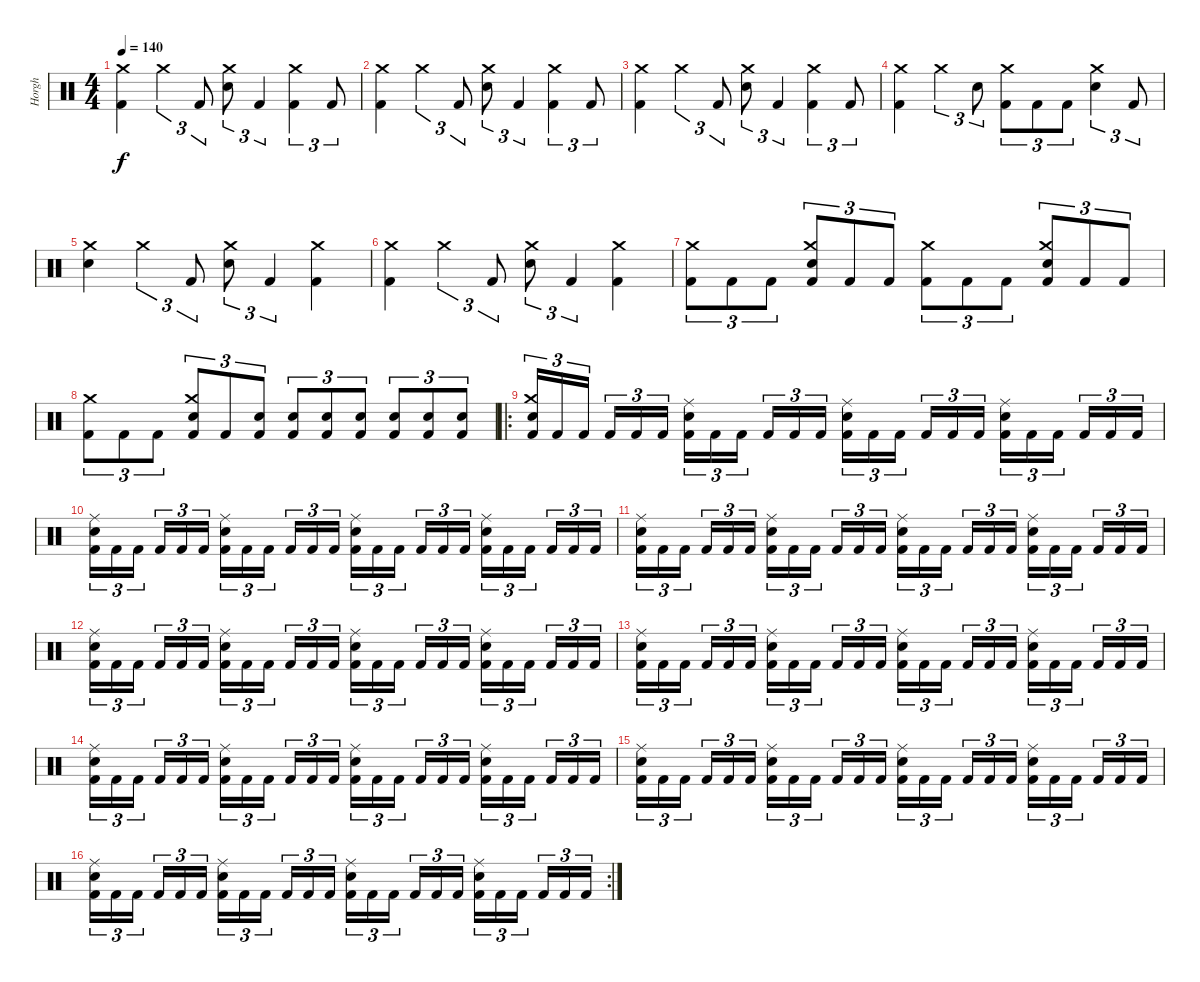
\track ("Horgh" "Horgh") {instrument percussion}
\staff {score}
\articulation defaults
\ts (4 4)
\tempo 140
\clef neutral
\ks c
("Kick (hit) 2" "Crash medium (hit)").4{dy f} "Crash medium (hit)".4{tu (3 2)} "Kick (hit) 2".8{tu (3 2)} ("Electric Snare (hit)" "Crash medium (hit)").8{tu (3 2)} "Kick (hit) 2".4{tu (3 2)} ("Kick (hit) 2" "Crash medium (hit)").4{tu (3 2)} "Kick (hit) 2".8{tu (3 2)} |
("Kick (hit) 2" "Crash medium (hit)").4 "Crash medium (hit)".4{tu (3 2)} "Kick (hit) 2".8{tu (3 2)} ("Electric Snare (hit)" "Crash medium (hit)").8{tu (3 2)} "Kick (hit) 2".4{tu (3 2)} ("Kick (hit) 2" "Crash medium (hit)").4{tu (3 2)} "Kick (hit) 2".8{tu (3 2)} |
("Kick (hit) 2" "Crash medium (hit)").4 "Crash medium (hit)".4{tu (3 2)} "Kick (hit) 2".8{tu (3 2)} ("Electric Snare (hit)" "Crash medium (hit)").8{tu (3 2)} "Kick (hit) 2".4{tu (3 2)} ("Kick (hit) 2" "Crash medium (hit)").4{tu (3 2)} "Kick (hit) 2".8{tu (3 2)} |
("Kick (hit) 2" "Crash medium (hit)").4 "Crash medium (hit)".4{tu (3 2)} "Electric Snare (hit)".8{tu (3 2)} ("Kick (hit) 2" "Crash medium (hit)").8{tu (3 2)} "Kick (hit) 2".8{tu (3 2)} "Kick (hit) 2".8{tu (3 2)} ("Electric Snare (hit)" "Crash medium (hit)").4{tu (3 2)} "Kick (hit) 2".8{tu (3 2)} |
("Electric Snare (hit)" "Crash medium (hit)").4 "Crash medium (hit)".4{tu (3 2)} "Kick (hit) 2".8{tu (3 2)} ("Electric Snare (hit)" "Crash medium (hit)").8{tu (3 2)} "Kick (hit) 2".4{tu (3 2)} ("Kick (hit) 2" "Crash medium (hit)").4 |
("Kick (hit) 2" "Crash medium (hit)").4 "Crash medium (hit)".4{tu (3 2)} "Kick (hit) 2".8{tu (3 2)} ("Electric Snare (hit)" "Crash medium (hit)").8{tu (3 2)} "Kick (hit) 2".4{tu (3 2)} ("Kick (hit) 2" "Crash medium (hit)").4 |
("Kick (hit) 2" "Crash medium (hit)").8{tu (3 2)} "Kick (hit) 2".8{tu (3 2)} "Kick (hit) 2".8{tu (3 2)} ("Kick (hit) 2" "Electric Snare (hit)" "Crash medium (hit)").8{tu (3 2)} "Kick (hit) 2".8{tu (3 2)} "Kick (hit) 2".8{tu (3 2)} ("Kick (hit) 2" "Crash medium (hit)").8{tu (3 2)} "Kick (hit) 2".8{tu (3 2)} "Kick (hit) 2".8{tu (3 2)} ("Kick (hit) 2" "Electric Snare (hit)" "Crash medium (hit)").8{tu (3 2)} "Kick (hit) 2".8{tu (3 2)} "Kick (hit) 2".8{tu (3 2)} |
("Kick (hit) 2" "Crash medium (hit)").8{tu (3 2)} "Kick (hit) 2".8{tu (3 2)} "Kick (hit) 2".8{tu (3 2)} ("Kick (hit) 2" "Electric Snare (hit)" "Crash medium (hit)").8{tu (3 2)} "Kick (hit) 2".8{tu (3 2)} ("Kick (hit) 2" "Electric Snare (hit)").8{tu (3 2)} ("Kick (hit) 2" "Electric Snare (hit)").8{tu (3 2)} ("Kick (hit) 2" "Electric Snare (hit)").8{tu (3 2)} ("Kick (hit) 2" "Electric Snare (hit)").8{tu (3 2)} ("Kick (hit) 2" "Electric Snare (hit)").8{tu (3 2)} ("Kick (hit) 2" "Electric Snare (hit)").8{tu (3 2)} ("Kick (hit) 2" "Electric Snare (hit)").8{tu (3 2)} |
\ro
("Kick (hit) 2" "Snare (hit) 2" "Crash medium (hit)").16{tu (3 2)} "Kick (hit) 2".16{tu (3 2)} "Kick (hit) 2".16{tu (3 2) beam splitsecondary} "Kick (hit) 2".16{tu (3 2)} "Kick (hit) 2".16{tu (3 2)} "Kick (hit) 2".16{tu (3 2)} ("Kick (hit) 2" "Snare (hit) 2" "Ride (middle)").16{tu (3 2)} "Kick (hit) 2".16{tu (3 2)} "Kick (hit) 2".16{tu (3 2) beam splitsecondary} "Kick (hit) 2".16{tu (3 2)} "Kick (hit) 2".16{tu (3 2)} "Kick (hit) 2".16{tu (3 2)} ("Kick (hit) 2" "Snare (hit) 2" "Ride (middle)").16{tu (3 2)} "Kick (hit) 2".16{tu (3 2)} "Kick (hit) 2".16{tu (3 2) beam splitsecondary} "Kick (hit) 2".16{tu (3 2)} "Kick (hit) 2".16{tu (3 2)} "Kick (hit) 2".16{tu (3 2)} ("Kick (hit) 2" "Snare (hit) 2" "Ride (middle)").16{tu (3 2)} "Kick (hit) 2".16{tu (3 2)} "Kick (hit) 2".16{tu (3 2) beam splitsecondary} "Kick (hit) 2".16{tu (3 2)} "Kick (hit) 2".16{tu (3 2)} "Kick (hit) 2".16{tu (3 2)} |
("Kick (hit) 2" "Snare (hit) 2" "Ride (middle)").16{tu (3 2)} "Kick (hit) 2".16{tu (3 2)} "Kick (hit) 2".16{tu (3 2) beam splitsecondary} "Kick (hit) 2".16{tu (3 2)} "Kick (hit) 2".16{tu (3 2)} "Kick (hit) 2".16{tu (3 2)} ("Kick (hit) 2" "Snare (hit) 2" "Ride (middle)").16{tu (3 2)} "Kick (hit) 2".16{tu (3 2)} "Kick (hit) 2".16{tu (3 2) beam splitsecondary} "Kick (hit) 2".16{tu (3 2)} "Kick (hit) 2".16{tu (3 2)} "Kick (hit) 2".16{tu (3 2)} ("Kick (hit) 2" "Snare (hit) 2" "Ride (middle)").16{tu (3 2)} "Kick (hit) 2".16{tu (3 2)} "Kick (hit) 2".16{tu (3 2) beam splitsecondary} "Kick (hit) 2".16{tu (3 2)} "Kick (hit) 2".16{tu (3 2)} "Kick (hit) 2".16{tu (3 2)} ("Kick (hit) 2" "Snare (hit) 2" "Ride (middle)").16{tu (3 2)} "Kick (hit) 2".16{tu (3 2)} "Kick (hit) 2".16{tu (3 2) beam splitsecondary} "Kick (hit) 2".16{tu (3 2)} "Kick (hit) 2".16{tu (3 2)} "Kick (hit) 2".16{tu (3 2)} |
("Kick (hit) 2" "Snare (hit) 2" "Ride (middle)").16{tu (3 2)} "Kick (hit) 2".16{tu (3 2)} "Kick (hit) 2".16{tu (3 2) beam splitsecondary} "Kick (hit) 2".16{tu (3 2)} "Kick (hit) 2".16{tu (3 2)} "Kick (hit) 2".16{tu (3 2)} ("Kick (hit) 2" "Snare (hit) 2" "Ride (middle)").16{tu (3 2)} "Kick (hit) 2".16{tu (3 2)} "Kick (hit) 2".16{tu (3 2) beam splitsecondary} "Kick (hit) 2".16{tu (3 2)} "Kick (hit) 2".16{tu (3 2)} "Kick (hit) 2".16{tu (3 2)} ("Kick (hit) 2" "Snare (hit) 2" "Ride (middle)").16{tu (3 2)} "Kick (hit) 2".16{tu (3 2)} "Kick (hit) 2".16{tu (3 2) beam splitsecondary} "Kick (hit) 2".16{tu (3 2)} "Kick (hit) 2".16{tu (3 2)} "Kick (hit) 2".16{tu (3 2)} ("Kick (hit) 2" "Snare (hit) 2" "Ride (middle)").16{tu (3 2)} "Kick (hit) 2".16{tu (3 2)} "Kick (hit) 2".16{tu (3 2) beam splitsecondary} "Kick (hit) 2".16{tu (3 2)} "Kick (hit) 2".16{tu (3 2)} "Kick (hit) 2".16{tu (3 2)} |
("Kick (hit) 2" "Snare (hit) 2" "Ride (middle)").16{tu (3 2)} "Kick (hit) 2".16{tu (3 2)} "Kick (hit) 2".16{tu (3 2) beam splitsecondary} "Kick (hit) 2".16{tu (3 2)} "Kick (hit) 2".16{tu (3 2)} "Kick (hit) 2".16{tu (3 2)} ("Kick (hit) 2" "Snare (hit) 2" "Ride (middle)").16{tu (3 2)} "Kick (hit) 2".16{tu (3 2)} "Kick (hit) 2".16{tu (3 2) beam splitsecondary} "Kick (hit) 2".16{tu (3 2)} "Kick (hit) 2".16{tu (3 2)} "Kick (hit) 2".16{tu (3 2)} ("Kick (hit) 2" "Snare (hit) 2" "Ride (middle)").16{tu (3 2)} "Kick (hit) 2".16{tu (3 2)} "Kick (hit) 2".16{tu (3 2) beam splitsecondary} "Kick (hit) 2".16{tu (3 2)} "Kick (hit) 2".16{tu (3 2)} "Kick (hit) 2".16{tu (3 2)} ("Kick (hit) 2" "Snare (hit) 2" "Ride (middle)").16{tu (3 2)} "Kick (hit) 2".16{tu (3 2)} "Kick (hit) 2".16{tu (3 2) beam splitsecondary} "Kick (hit) 2".16{tu (3 2)} "Kick (hit) 2".16{tu (3 2)} "Kick (hit) 2".16{tu (3 2)} |
("Kick (hit) 2" "Snare (hit) 2" "Ride (middle)").16{tu (3 2)} "Kick (hit) 2".16{tu (3 2)} "Kick (hit) 2".16{tu (3 2) beam splitsecondary} "Kick (hit) 2".16{tu (3 2)} "Kick (hit) 2".16{tu (3 2)} "Kick (hit) 2".16{tu (3 2)} ("Kick (hit) 2" "Snare (hit) 2" "Ride (middle)").16{tu (3 2)} "Kick (hit) 2".16{tu (3 2)} "Kick (hit) 2".16{tu (3 2) beam splitsecondary} "Kick (hit) 2".16{tu (3 2)} "Kick (hit) 2".16{tu (3 2)} "Kick (hit) 2".16{tu (3 2)} ("Kick (hit) 2" "Snare (hit) 2" "Ride (middle)").16{tu (3 2)} "Kick (hit) 2".16{tu (3 2)} "Kick (hit) 2".16{tu (3 2) beam splitsecondary} "Kick (hit) 2".16{tu (3 2)} "Kick (hit) 2".16{tu (3 2)} "Kick (hit) 2".16{tu (3 2)} ("Kick (hit) 2" "Snare (hit) 2" "Ride (middle)").16{tu (3 2)} "Kick (hit) 2".16{tu (3 2)} "Kick (hit) 2".16{tu (3 2) beam splitsecondary} "Kick (hit) 2".16{tu (3 2)} "Kick (hit) 2".16{tu (3 2)} "Kick (hit) 2".16{tu (3 2)} |
("Kick (hit) 2" "Snare (hit) 2" "Ride (middle)").16{tu (3 2)} "Kick (hit) 2".16{tu (3 2)} "Kick (hit) 2".16{tu (3 2) beam splitsecondary} "Kick (hit) 2".16{tu (3 2)} "Kick (hit) 2".16{tu (3 2)} "Kick (hit) 2".16{tu (3 2)} ("Kick (hit) 2" "Snare (hit) 2" "Ride (middle)").16{tu (3 2)} "Kick (hit) 2".16{tu (3 2)} "Kick (hit) 2".16{tu (3 2) beam splitsecondary} "Kick (hit) 2".16{tu (3 2)} "Kick (hit) 2".16{tu (3 2)} "Kick (hit) 2".16{tu (3 2)} ("Kick (hit) 2" "Snare (hit) 2" "Ride (middle)").16{tu (3 2)} "Kick (hit) 2".16{tu (3 2)} "Kick (hit) 2".16{tu (3 2) beam splitsecondary} "Kick (hit) 2".16{tu (3 2)} "Kick (hit) 2".16{tu (3 2)} "Kick (hit) 2".16{tu (3 2)} ("Kick (hit) 2" "Snare (hit) 2" "Ride (middle)").16{tu (3 2)} "Kick (hit) 2".16{tu (3 2)} "Kick (hit) 2".16{tu (3 2) beam splitsecondary} "Kick (hit) 2".16{tu (3 2)} "Kick (hit) 2".16{tu (3 2)} "Kick (hit) 2".16{tu (3 2)} |
("Kick (hit) 2" "Snare (hit) 2" "Ride (middle)").16{tu (3 2)} "Kick (hit) 2".16{tu (3 2)} "Kick (hit) 2".16{tu (3 2) beam splitsecondary} "Kick (hit) 2".16{tu (3 2)} "Kick (hit) 2".16{tu (3 2)} "Kick (hit) 2".16{tu (3 2)} ("Kick (hit) 2" "Snare (hit) 2" "Ride (middle)").16{tu (3 2)} "Kick (hit) 2".16{tu (3 2)} "Kick (hit) 2".16{tu (3 2) beam splitsecondary} "Kick (hit) 2".16{tu (3 2)} "Kick (hit) 2".16{tu (3 2)} "Kick (hit) 2".16{tu (3 2)} ("Kick (hit) 2" "Snare (hit) 2" "Ride (middle)").16{tu (3 2)} "Kick (hit) 2".16{tu (3 2)} "Kick (hit) 2".16{tu (3 2) beam splitsecondary} "Kick (hit) 2".16{tu (3 2)} "Kick (hit) 2".16{tu (3 2)} "Kick (hit) 2".16{tu (3 2)} ("Kick (hit) 2" "Snare (hit) 2" "Ride (middle)").16{tu (3 2)} "Kick (hit) 2".16{tu (3 2)} "Kick (hit) 2".16{tu (3 2) beam splitsecondary} "Kick (hit) 2".16{tu (3 2)} "Kick (hit) 2".16{tu (3 2)} "Kick (hit) 2".16{tu (3 2)} |
\rc 2
("Kick (hit) 2" "Snare (hit) 2" "Ride (middle)").16{tu (3 2)} "Kick (hit) 2".16{tu (3 2)} "Kick (hit) 2".16{tu (3 2) beam splitsecondary} "Kick (hit) 2".16{tu (3 2)} "Kick (hit) 2".16{tu (3 2)} "Kick (hit) 2".16{tu (3 2)} ("Kick (hit) 2" "Snare (hit) 2" "Ride (middle)").16{tu (3 2)} "Kick (hit) 2".16{tu (3 2)} "Kick (hit) 2".16{tu (3 2) beam splitsecondary} "Kick (hit) 2".16{tu (3 2)} "Kick (hit) 2".16{tu (3 2)} "Kick (hit) 2".16{tu (3 2)} ("Kick (hit) 2" "Snare (hit) 2" "Ride (middle)").16{tu (3 2)} "Kick (hit) 2".16{tu (3 2)} "Kick (hit) 2".16{tu (3 2) beam splitsecondary} "Kick (hit) 2".16{tu (3 2)} "Kick (hit) 2".16{tu (3 2)} "Kick (hit) 2".16{tu (3 2)} ("Kick (hit) 2" "Snare (hit) 2" "Ride (middle)").16{tu (3 2)} "Kick (hit) 2".16{tu (3 2)} "Kick (hit) 2".16{tu (3 2) beam splitsecondary} "Kick (hit) 2".16{tu (3 2)} "Kick (hit) 2".16{tu (3 2)} "Kick (hit) 2".16{tu (3 2)}
